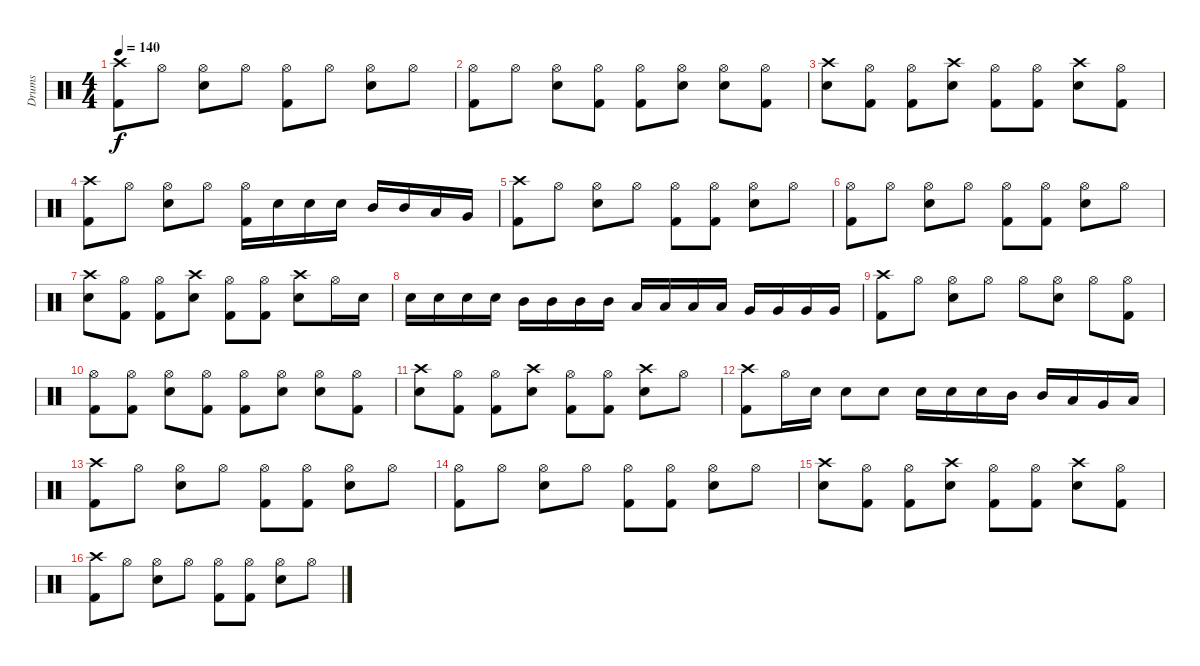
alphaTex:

\track ("Drums" "Drums") {instrument percussion}
\staff {score}
\articulation defaults
\ts (4 4)
\tempo 140
\clef neutral
\ks c
("Crash high (hit)" "Kick (hit) 2").8{dy f} "Hi-Hat (open)".8 ("Hi-Hat (open)" "Snare (hit) 2").8 "Hi-Hat (open)".8 ("Hi-Hat (open)" "Kick (hit) 2").8 "Hi-Hat (open)".8 ("Hi-Hat (open)" "Snare (hit) 2").8 "Hi-Hat (open)".8 |
("Hi-Hat (open)" "Kick (hit) 2").8 "Hi-Hat (open)".8 ("Hi-Hat (open)" "Snare (hit) 2").8 ("Hi-Hat (open)" "Kick (hit) 2").8 ("Hi-Hat (open)" "Kick (hit) 2").8 ("Hi-Hat (open)" "Snare (hit) 2").8 ("Hi-Hat (open)" "Snare (hit) 2").8 ("Hi-Hat (open)" "Kick (hit) 2").8 |
("Crash high (hit)" "Snare (hit) 2").8 ("Hi-Hat (open)" "Kick (hit) 2").8 ("Hi-Hat (open)" "Kick (hit) 2").8 ("Crash high (hit)" "Snare (hit) 2").8 ("Hi-Hat (open)" "Kick (hit) 2").8 ("Hi-Hat (open)" "Kick (hit) 2").8 ("Crash high (hit)" "Snare (hit) 2").8 ("Hi-Hat (open)" "Kick (hit) 2").8 |
("Crash high (hit)" "Kick (hit) 2").8 "Hi-Hat (open)".8 ("Hi-Hat (open)" "Snare (hit) 2").8 "Hi-Hat (open)".8 ("Hi-Hat (open)" "Kick (hit) 2").16 "Snare (hit) 2".16 "Snare (hit) 2".16 "Snare (hit) 2".16 "Mid Tom (hit)".16 "Mid Tom (hit)".16 "Low Tom (hit)".16 "Very Low Tom (hit)".16 |
("Crash high (hit)" "Kick (hit) 2").8 "Hi-Hat (open)".8 ("Hi-Hat (open)" "Snare (hit) 2").8 "Hi-Hat (open)".8 ("Hi-Hat (open)" "Kick (hit) 2").8 ("Hi-Hat (open)" "Kick (hit) 2").8 ("Hi-Hat (open)" "Snare (hit) 2").8 "Hi-Hat (open)".8 |
("Hi-Hat (open)" "Kick (hit) 2").8 "Hi-Hat (open)".8 ("Hi-Hat (open)" "Snare (hit) 2").8 "Hi-Hat (open)".8 ("Hi-Hat (open)" "Kick (hit) 2").8 ("Hi-Hat (open)" "Kick (hit) 2").8 ("Hi-Hat (open)" "Snare (hit) 2").8 "Hi-Hat (open)".8 |
("Crash high (hit)" "Snare (hit) 2").8 ("Hi-Hat (open)" "Kick (hit) 2").8 ("Hi-Hat (open)" "Kick (hit) 2").8 ("Crash high (hit)" "Snare (hit) 2").8 ("Hi-Hat (open)" "Kick (hit) 2").8 ("Hi-Hat (open)" "Kick (hit) 2").8 ("Crash high (hit)" "Snare (hit) 2").8 "Hi-Hat (open)".16 "Snare (hit) 2".16 |
"Snare (hit) 2".16 "Snare (hit) 2".16 "Snare (hit) 2".16 "Snare (hit) 2".16 "Mid Tom (hit)".16 "Mid Tom (hit)".16 "Mid Tom (hit)".16 "Mid Tom (hit)".16 "Low Tom (hit)".16 "Low Tom (hit)".16 "Low Tom (hit)".16 "Low Tom (hit)".16 "Very Low Tom (hit)".16 "Very Low Tom (hit)".16 "Very Low Tom (hit)".16 "Very Low Tom (hit)".16 |
("Crash high (hit)" "Kick (hit) 2").8 "Hi-Hat (open)".8 ("Hi-Hat (open)" "Snare (hit) 2").8 "Hi-Hat (open)".8 "Hi-Hat (open)".8 ("Hi-Hat (open)" "Snare (hit) 2").8 "Hi-Hat (open)".8 ("Hi-Hat (open)" "Kick (hit) 2").8 |
("Hi-Hat (open)" "Kick (hit) 2").8 ("Hi-Hat (open)" "Kick (hit) 2").8 ("Hi-Hat (open)" "Snare (hit) 2").8 ("Hi-Hat (open)" "Kick (hit) 2").8 ("Hi-Hat (open)" "Kick (hit) 2").8 ("Hi-Hat (open)" "Snare (hit) 2").8 ("Hi-Hat (open)" "Snare (hit) 2").8 ("Hi-Hat (open)" "Kick (hit) 2").8 |
("Crash high (hit)" "Snare (hit) 2").8 ("Hi-Hat (open)" "Kick (hit) 2").8 ("Hi-Hat (open)" "Kick (hit) 2").8 ("Crash high (hit)" "Snare (hit) 2").8 ("Hi-Hat (open)" "Kick (hit) 2").8 ("Hi-Hat (open)" "Kick (hit) 2").8 ("Crash high (hit)" "Snare (hit) 2").8 "Hi-Hat (open)".8 |
("Crash high (hit)" "Kick (hit) 2").8 "Hi-Hat (open)".16 "Snare (hit) 2".16 "Snare (hit) 2".8 "Snare (hit) 2".8 "Snare (hit) 2".16 "Snare (hit) 2".16 "Snare (hit) 2".16 "Mid Tom (hit)".16 "Mid Tom (hit)".16 "Low Tom (hit)".16 "Very Low Tom (hit)".16 "Low Floor Tom (hit)".16 |
("Crash high (hit)" "Kick (hit) 2").8 "Hi-Hat (open)".8 ("Hi-Hat (open)" "Snare (hit) 2").8 "Hi-Hat (open)".8 ("Hi-Hat (open)" "Kick (hit) 2").8 ("Hi-Hat (open)" "Kick (hit) 2").8 ("Hi-Hat (open)" "Snare (hit) 2").8 "Hi-Hat (open)".8 |
("Hi-Hat (open)" "Kick (hit) 2").8 "Hi-Hat (open)".8 ("Hi-Hat (open)" "Snare (hit) 2").8 "Hi-Hat (open)".8 ("Hi-Hat (open)" "Kick (hit) 2").8 ("Hi-Hat (open)" "Kick (hit) 2").8 ("Hi-Hat (open)" "Snare (hit) 2").8 "Hi-Hat (open)".8 |
("Crash high (hit)" "Snare (hit) 2").8 ("Hi-Hat (open)" "Kick (hit) 2").8 ("Hi-Hat (open)" "Kick (hit) 2").8 ("Crash high (hit)" "Snare (hit) 2").8 ("Hi-Hat (open)" "Kick (hit) 2").8 ("Hi-Hat (open)" "Kick (hit) 2").8 ("Crash high (hit)" "Snare (hit) 2").8 ("Hi-Hat (open)" "Kick (hit) 2").8 |
("Crash high (hit)" "Kick (hit) 2").8 "Hi-Hat (open)".8 ("Hi-Hat (open)" "Snare (hit) 2").8 "Hi-Hat (open)".8 ("Hi-Hat (open)" "Kick (hit) 2").8 ("Hi-Hat (open)" "Kick (hit) 2").8 ("Hi-Hat (open)" "Snare (hit) 2").8 "Hi-Hat (open)".8
